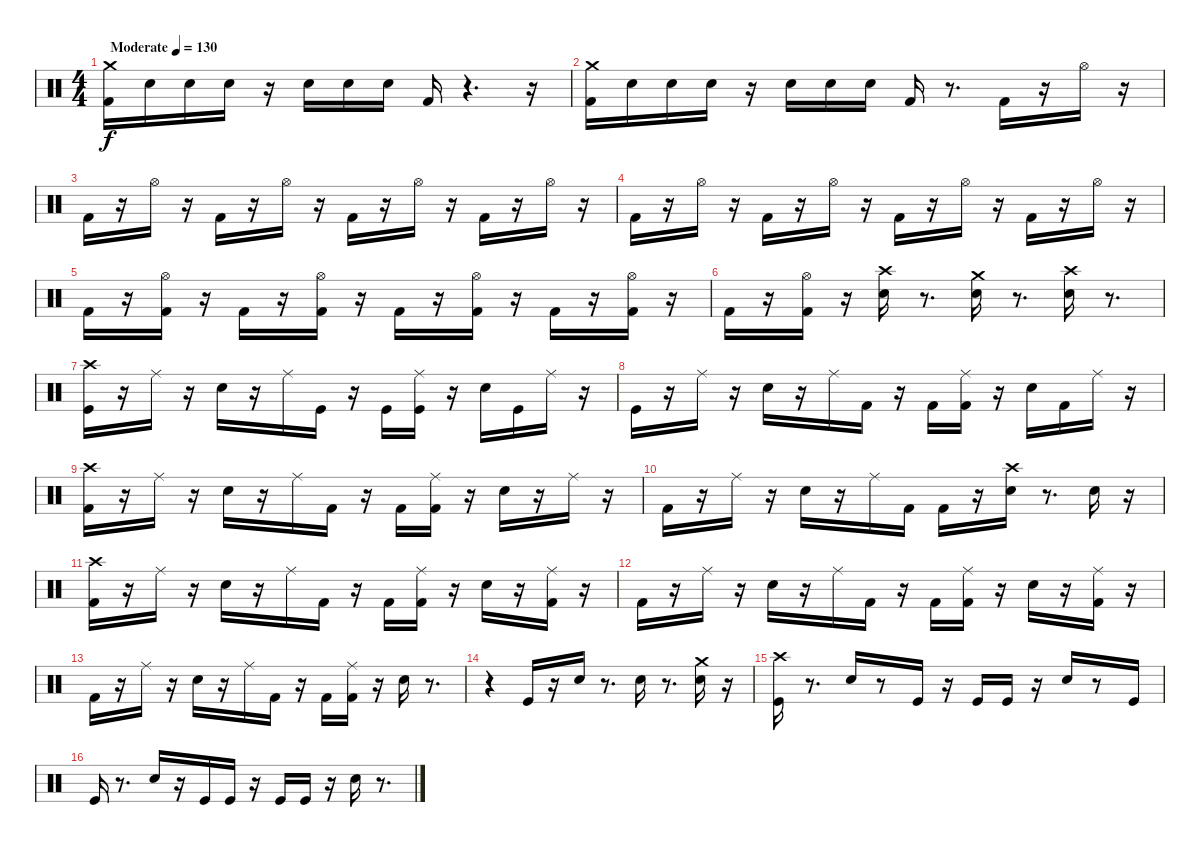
\track "" {instrument percussion}
\staff {score}
\articulation defaults
\ts (4 4)
\tempo (130 "Moderate")
\clef neutral
\ks c
("Kick (hit) 2" "Crash medium (hit)").16{dy f} "Electric Snare (hit)".16 "Electric Snare (hit)".16 "Electric Snare (hit)".16 r.16 "Snare (hit) 2".16 "Snare (hit) 2".16 "Snare (hit) 2".16 "Kick (hit) 2".16 r.4{d} r.16 |
("Kick (hit) 2" "Crash medium (hit)").16 "Electric Snare (hit)".16 "Electric Snare (hit)".16 "Electric Snare (hit)".16 r.16 "Snare (hit) 2".16 "Snare (hit) 2".16 "Snare (hit) 2".16 "Kick (hit) 2".16 r.8{d} "Kick (hit) 2".16 r.16 "Hi-Hat (open)".16 r.16 |
"Kick (hit) 2".16 r.16 "Hi-Hat (open)".16 r.16 "Kick (hit) 2".16 r.16 "Hi-Hat (open)".16 r.16 "Kick (hit) 2".16 r.16 "Hi-Hat (open)".16 r.16 "Kick (hit) 2".16 r.16 "Hi-Hat (open)".16 r.16 |
"Kick (hit) 2".16 r.16 "Hi-Hat (open)".16 r.16 "Kick (hit) 2".16 r.16 "Hi-Hat (open)".16 r.16 "Kick (hit) 2".16 r.16 "Hi-Hat (open)".16 r.16 "Kick (hit) 2".16 r.16 "Hi-Hat (open)".16 r.16 |
"Kick (hit) 2".16 r.16 ("Hi-Hat (open)" "Kick (hit) 2").16 r.16 "Kick (hit) 2".16 r.16 ("Hi-Hat (open)" "Kick (hit) 2").16 r.16 "Kick (hit) 2".16 r.16 ("Hi-Hat (open)" "Kick (hit) 2").16 r.16 "Kick (hit) 2".16 r.16 ("Kick (hit) 2" "Hi-Hat (open)").16 r.16 |
"Kick (hit) 2".16 r.16 ("Kick (hit) 2" "Hi-Hat (open)").16 r.16 ("Electric Snare (hit)" "Crash high (hit)").16 r.8{d} ("Electric Snare (hit)" "Crash medium (hit)").16 r.8{d} ("Electric Snare (hit)" "Crash high (hit)").16 r.8{d} |
("Kick (hit)" "Crash high (hit)").16 r.16 "Ride (middle)".16 r.16 "Electric Snare (hit)".16 r.16 "Ride (middle)".16 "Kick (hit)".16 r.16 "Kick (hit)".16 ("Ride (middle)" "Kick (hit)").16 r.16 "Electric Snare (hit)".16 "Kick (hit)".16 "Ride (middle)".16 r.16 |
"Kick (hit)".16 r.16 "Ride (middle)".16 r.16 "Electric Snare (hit)".16 r.16 "Ride (middle)".16 "Kick (hit) 2".16 r.16 "Kick (hit) 2".16 ("Kick (hit) 2" "Ride (middle)").16 r.16 "Electric Snare (hit)".16 "Kick (hit) 2".16 "Ride (middle)".16 r.16 |
("Kick (hit) 2" "Crash high (hit)").16 r.16 "Ride (middle)".16 r.16 "Electric Snare (hit)".16 r.16 "Ride (middle)".16 "Kick (hit) 2".16 r.16 "Kick (hit) 2".16 ("Ride (middle)" "Kick (hit) 2").16 r.16 "Electric Snare (hit)".16 r.16 "Ride (middle)".16 r.16 |
"Kick (hit) 2".16 r.16 "Ride (middle)".16 r.16 "Electric Snare (hit)".16 r.16 "Ride (middle)".16 "Kick (hit) 2".16 "Kick (hit) 2".16 r.16 ("Crash high (hit)" "Electric Snare (hit)").16 r.8{d} "Electric Snare (hit)".16 r.16 |
("Crash high (hit)" "Kick (hit) 2").16 r.16 "Ride (middle)".16 r.16 "Electric Snare (hit)".16 r.16 "Ride (middle)".16 "Kick (hit) 2".16 r.16 "Kick (hit) 2".16 ("Ride (middle)" "Kick (hit) 2").16 r.16 "Electric Snare (hit)".16 r.16 ("Ride (middle)" "Kick (hit) 2").16 r.16 |
"Kick (hit) 2".16 r.16 "Ride (middle)".16 r.16 "Electric Snare (hit)".16 r.16 "Ride (middle)".16 "Kick (hit) 2".16 r.16 "Kick (hit) 2".16 ("Ride (middle)" "Kick (hit) 2").16 r.16 "Electric Snare (hit)".16 r.16 ("Kick (hit) 2" "Ride (middle)").16 r.16 |
"Kick (hit) 2".16 r.16 "Ride (middle)".16 r.16 "Electric Snare (hit)".16 r.16 "Ride (middle)".16 "Kick (hit) 2".16 r.16 "Kick (hit) 2".16 ("Ride (middle)" "Kick (hit) 2").16 r.16 "Electric Snare (hit)".16 r.8{d} |
r.4 "Kick (hit)".16 r.16 "Electric Snare (hit)".16 r.8{d} "Electric Snare (hit)".16 r.8{d} ("Electric Snare (hit)" "Crash medium (hit)").16 r.16 |
("Crash high (hit)" "Kick (hit)").16 r.8{d} "Snare (hit) 2".16 r.8 "Kick (hit)".16 r.16 "Kick (hit)".16 "Kick (hit)".16 r.16 "Snare (hit) 2".16 r.8 "Kick (hit)".16 |
"Kick (hit)".16 r.8{d} "Snare (hit) 2".16 r.16 "Kick (hit)".16 "Kick (hit)".16 r.16 "Kick (hit)".16 "Kick (hit)".16 r.16 "Snare (hit) 2".16 r.8{d}
